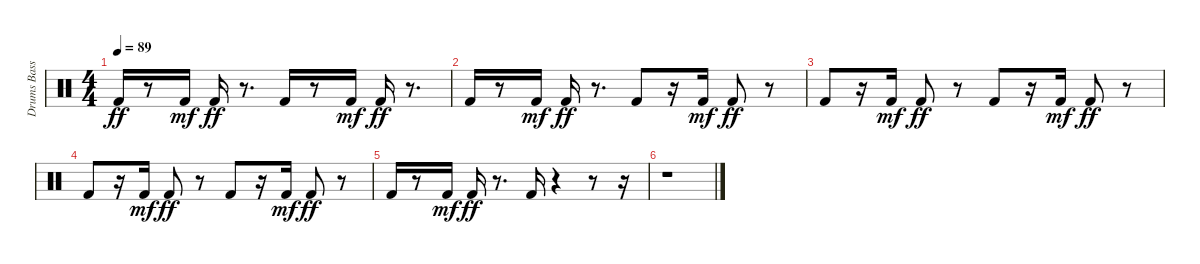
\track ("Drums Bass" "Drums Bass") {instrument percussion}
\staff {score}
\articulation defaults
\ts (4 4)
\tempo 89
\clef neutral
\ks c "Kick (hit) 2".16{dy ff}
r.8 "Kick (hit) 2".16{dy mf} "Kick (hit) 2".16{dy ff} r.8{d} "Kick (hit) 2".16 r.8 "Kick (hit) 2".16{dy mf} "Kick (hit) 2".16{dy ff} r.8{d} |
"Kick (hit) 2".16 r.8 "Kick (hit) 2".16{dy mf} "Kick (hit) 2".16{dy ff} r.8{d} "Kick (hit) 2".8 r.16 "Kick (hit) 2".16{dy mf} "Kick (hit) 2".8{dy ff} r.8 |
"Kick (hit) 2".8 r.16 "Kick (hit) 2".16{dy mf} "Kick (hit) 2".8{dy ff} r.8 "Kick (hit) 2".8 r.16 "Kick (hit) 2".16{dy mf} "Kick (hit) 2".8{dy ff} r.8 |
"Kick (hit) 2".8 r.16 "Kick (hit) 2".16{dy mf} "Kick (hit) 2".8{dy ff} r.8 "Kick (hit) 2".8 r.16 "Kick (hit) 2".16{dy mf} "Kick (hit) 2".8{dy ff} r.8 |
"Kick (hit) 2".16 r.8 "Kick (hit) 2".16{dy mf} "Kick (hit) 2".16{dy ff} r.8{d} "Kick (hit) 2".16 r.4 r.8 r.16 |
r.1
